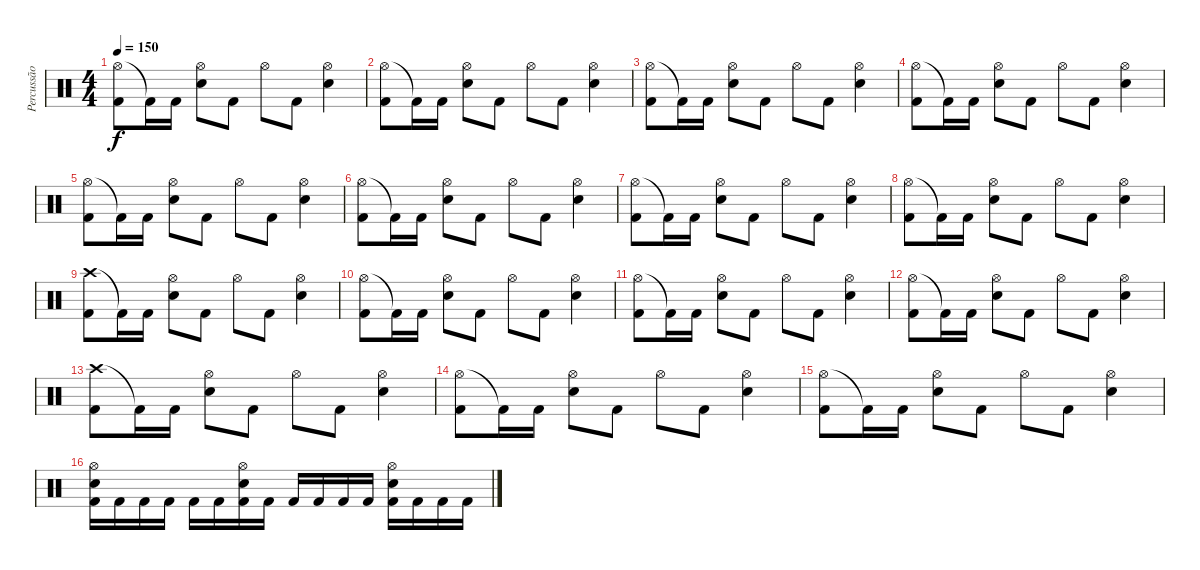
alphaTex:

\track ("Percussão" "Percussão") {instrument percussion}
\staff {score}
\articulation defaults
\ts (4 4)
\tempo 150
\clef neutral
\ks c
("Hi-Hat (open)" "Kick (hit) 2").8{dy f} "Kick (hit) 2"{t}.16 "Kick (hit) 2".16 ("Hi-Hat (open)" "Electric Snare (hit)").8 "Kick (hit) 2".8 "Hi-Hat (open)".8 "Kick (hit) 2".8 ("Hi-Hat (open)" "Electric Snare (hit)").4 |
("Hi-Hat (open)" "Kick (hit) 2").8 "Kick (hit) 2"{t}.16 "Kick (hit) 2".16 ("Hi-Hat (open)" "Electric Snare (hit)").8 "Kick (hit) 2".8 "Hi-Hat (open)".8 "Kick (hit) 2".8 ("Hi-Hat (open)" "Electric Snare (hit)").4 |
("Hi-Hat (open)" "Kick (hit) 2").8 "Kick (hit) 2"{t}.16 "Kick (hit) 2".16 ("Hi-Hat (open)" "Electric Snare (hit)").8 "Kick (hit) 2".8 "Hi-Hat (open)".8 "Kick (hit) 2".8 ("Hi-Hat (open)" "Electric Snare (hit)").4 |
("Hi-Hat (open)" "Kick (hit) 2").8 "Kick (hit) 2"{t}.16 "Kick (hit) 2".16 ("Hi-Hat (open)" "Electric Snare (hit)").8 "Kick (hit) 2".8 "Hi-Hat (open)".8 "Kick (hit) 2".8 ("Hi-Hat (open)" "Electric Snare (hit)").4 |
("Hi-Hat (open)" "Kick (hit) 2").8 "Kick (hit) 2"{t}.16 "Kick (hit) 2".16 ("Hi-Hat (open)" "Electric Snare (hit)").8 "Kick (hit) 2".8 "Hi-Hat (open)".8 "Kick (hit) 2".8 ("Hi-Hat (open)" "Electric Snare (hit)").4 |
("Hi-Hat (open)" "Kick (hit) 2").8 "Kick (hit) 2"{t}.16 "Kick (hit) 2".16 ("Hi-Hat (open)" "Electric Snare (hit)").8 "Kick (hit) 2".8 "Hi-Hat (open)".8 "Kick (hit) 2".8 ("Hi-Hat (open)" "Electric Snare (hit)").4 |
("Hi-Hat (open)" "Kick (hit) 2").8 "Kick (hit) 2"{t}.16 "Kick (hit) 2".16 ("Hi-Hat (open)" "Electric Snare (hit)").8 "Kick (hit) 2".8 "Hi-Hat (open)".8 "Kick (hit) 2".8 ("Hi-Hat (open)" "Electric Snare (hit)").4 |
("Hi-Hat (open)" "Kick (hit) 2").8 "Kick (hit) 2"{t}.16 "Kick (hit) 2".16 ("Hi-Hat (open)" "Electric Snare (hit)").8 "Kick (hit) 2".8 "Hi-Hat (open)".8 "Kick (hit) 2".8 ("Hi-Hat (open)" "Electric Snare (hit)").4 |
("Crash high (hit)" "Kick (hit) 2").8 "Kick (hit) 2"{t}.16 "Kick (hit) 2".16 ("Hi-Hat (open)" "Electric Snare (hit)").8 "Kick (hit) 2".8 "Hi-Hat (open)".8 "Kick (hit) 2".8 ("Hi-Hat (open)" "Electric Snare (hit)").4 |
("Hi-Hat (open)" "Kick (hit) 2").8 "Kick (hit) 2"{t}.16 "Kick (hit) 2".16 ("Hi-Hat (open)" "Electric Snare (hit)").8 "Kick (hit) 2".8 "Hi-Hat (open)".8 "Kick (hit) 2".8 ("Hi-Hat (open)" "Electric Snare (hit)").4 |
("Hi-Hat (open)" "Kick (hit) 2").8 "Kick (hit) 2"{t}.16 "Kick (hit) 2".16 ("Hi-Hat (open)" "Electric Snare (hit)").8 "Kick (hit) 2".8 "Hi-Hat (open)".8 "Kick (hit) 2".8 ("Hi-Hat (open)" "Electric Snare (hit)").4 |
("Hi-Hat (open)" "Kick (hit) 2").8 "Kick (hit) 2"{t}.16 "Kick (hit) 2".16 ("Hi-Hat (open)" "Electric Snare (hit)").8 "Kick (hit) 2".8 "Hi-Hat (open)".8 "Kick (hit) 2".8 ("Hi-Hat (open)" "Electric Snare (hit)").4 |
("Crash high (hit)" "Kick (hit) 2").8 "Kick (hit) 2"{t}.16 "Kick (hit) 2".16 ("Hi-Hat (open)" "Electric Snare (hit)").8 "Kick (hit) 2".8 "Hi-Hat (open)".8 "Kick (hit) 2".8 ("Hi-Hat (open)" "Electric Snare (hit)").4 |
("Hi-Hat (open)" "Kick (hit) 2").8 "Kick (hit) 2"{t}.16 "Kick (hit) 2".16 ("Hi-Hat (open)" "Electric Snare (hit)").8 "Kick (hit) 2".8 "Hi-Hat (open)".8 "Kick (hit) 2".8 ("Hi-Hat (open)" "Electric Snare (hit)").4 |
("Hi-Hat (open)" "Kick (hit) 2").8 "Kick (hit) 2"{t}.16 "Kick (hit) 2".16 ("Hi-Hat (open)" "Electric Snare (hit)").8 "Kick (hit) 2".8 "Hi-Hat (open)".8 "Kick (hit) 2".8 ("Hi-Hat (open)" "Electric Snare (hit)").4 |
("Hi-Hat (open)" "Electric Snare (hit)" "Kick (hit) 2").16 "Kick (hit) 2".16 "Kick (hit) 2".16 "Kick (hit) 2".16 "Kick (hit) 2".16 "Kick (hit) 2".16 ("Hi-Hat (open)" "Electric Snare (hit)" "Kick (hit) 2").16 "Kick (hit) 2".16 "Kick (hit) 2".16 "Kick (hit) 2".16 "Kick (hit) 2".16 "Kick (hit) 2".16 ("Hi-Hat (open)" "Electric Snare (hit)" "Kick (hit) 2").16 "Kick (hit) 2".16 "Kick (hit) 2".16 "Kick (hit) 2".16
